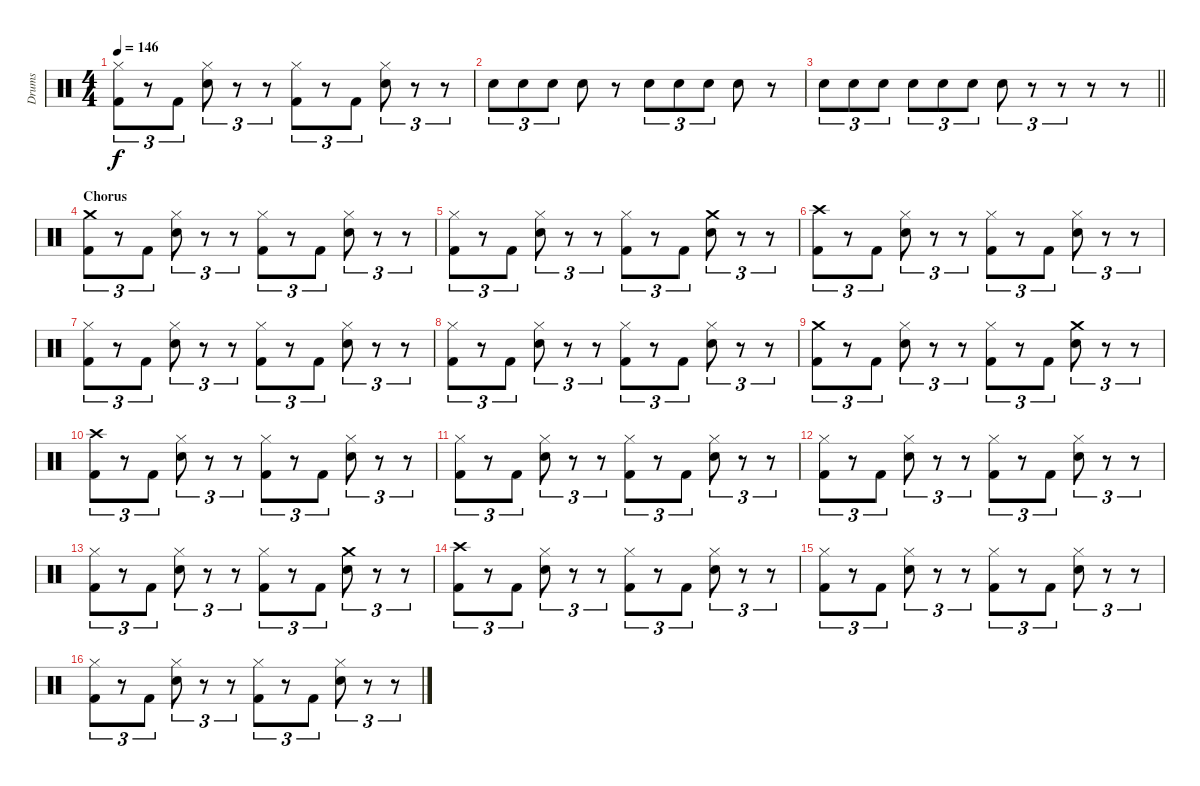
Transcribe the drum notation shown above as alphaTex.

\track ("Drums" "Drums") {instrument percussion}
\staff {score}
\articulation defaults
\ts (4 4)
\tempo 146
\clef neutral
\ks c
("Hi-Hat (closed)" "Kick (hit) 2").8{tu (3 2) dy f} r.8{tu (3 2)} "Kick (hit) 2".8{tu (3 2)} ("Hi-Hat (closed)" "Snare (hit) 2").8{tu (3 2)} r.8{tu (3 2)} r.8{tu (3 2)} ("Hi-Hat (closed)" "Kick (hit) 2").8{tu (3 2)} r.8{tu (3 2)} "Kick (hit) 2".8{tu (3 2)} ("Hi-Hat (closed)" "Snare (hit) 2").8{tu (3 2)} r.8{tu (3 2)} r.8{tu (3 2)} |
"Snare (hit) 2".8{tu (3 2)} "Snare (hit) 2".8{tu (3 2)} "Snare (hit) 2".8{tu (3 2)} "Snare (hit) 2".8 r.8 "Snare (hit) 2".8{tu (3 2)} "Snare (hit) 2".8{tu (3 2)} "Snare (hit) 2".8{tu (3 2)} "Snare (hit) 2".8 r.8 |
\barLineRight lightlight "Snare (hit) 2".8{tu (3 2)} "Snare (hit) 2".8{tu (3 2)} "Snare (hit) 2".8{tu (3 2)} "Snare (hit) 2".8{tu (3 2)} "Snare (hit) 2".8{tu (3 2)} "Snare (hit) 2".8{tu (3 2)} "Snare (hit) 2".8{tu (3 2)}
r.8{tu (3 2)} r.8{tu (3 2)} r.8 r.8 |
\section ("" "Chorus")
("Crash medium (hit)" "Kick (hit) 2").8{tu (3 2)} r.8{tu (3 2)} "Kick (hit) 2".8{tu (3 2)} ("Hi-Hat (closed)" "Snare (hit) 2").8{tu (3 2)} r.8{tu (3 2)} r.8{tu (3 2)} ("Hi-Hat (closed)" "Kick (hit) 2").8{tu (3 2)} r.8{tu (3 2)} "Kick (hit) 2".8{tu (3 2)} ("Hi-Hat (closed)" "Snare (hit) 2").8{tu (3 2)} r.8{tu (3 2)} r.8{tu (3 2)} |
("Hi-Hat (closed)" "Kick (hit) 2").8{tu (3 2)} r.8{tu (3 2)} "Kick (hit) 2".8{tu (3 2)} ("Hi-Hat (closed)" "Snare (hit) 2").8{tu (3 2)} r.8{tu (3 2)} r.8{tu (3 2)} ("Hi-Hat (closed)" "Kick (hit) 2").8{tu (3 2)} r.8{tu (3 2)} "Kick (hit) 2".8{tu (3 2)} ("Crash medium (hit)" "Snare (hit) 2").8{tu (3 2)} r.8{tu (3 2)} r.8{tu (3 2)} |
("Crash high (hit)" "Kick (hit) 2").8{tu (3 2)} r.8{tu (3 2)} "Kick (hit) 2".8{tu (3 2)} ("Hi-Hat (closed)" "Snare (hit) 2").8{tu (3 2)} r.8{tu (3 2)} r.8{tu (3 2)} ("Hi-Hat (closed)" "Kick (hit) 2").8{tu (3 2)} r.8{tu (3 2)} "Kick (hit) 2".8{tu (3 2)} ("Hi-Hat (closed)" "Snare (hit) 2").8{tu (3 2)} r.8{tu (3 2)} r.8{tu (3 2)} |
("Hi-Hat (closed)" "Kick (hit) 2").8{tu (3 2)} r.8{tu (3 2)} "Kick (hit) 2".8{tu (3 2)} ("Hi-Hat (closed)" "Snare (hit) 2").8{tu (3 2)} r.8{tu (3 2)} r.8{tu (3 2)} ("Hi-Hat (closed)" "Kick (hit) 2").8{tu (3 2)} r.8{tu (3 2)} "Kick (hit) 2".8{tu (3 2)} ("Hi-Hat (closed)" "Snare (hit) 2").8{tu (3 2)} r.8{tu (3 2)} r.8{tu (3 2)} |
("Hi-Hat (closed)" "Kick (hit) 2").8{tu (3 2)} r.8{tu (3 2)} "Kick (hit) 2".8{tu (3 2)} ("Hi-Hat (closed)" "Snare (hit) 2").8{tu (3 2)} r.8{tu (3 2)} r.8{tu (3 2)} ("Hi-Hat (closed)" "Kick (hit) 2").8{tu (3 2)} r.8{tu (3 2)} "Kick (hit) 2".8{tu (3 2)} ("Hi-Hat (closed)" "Snare (hit) 2").8{tu (3 2)} r.8{tu (3 2)} r.8{tu (3 2)} |
("Crash medium (hit)" "Kick (hit) 2").8{tu (3 2)} r.8{tu (3 2)} "Kick (hit) 2".8{tu (3 2)} ("Hi-Hat (closed)" "Snare (hit) 2").8{tu (3 2)} r.8{tu (3 2)} r.8{tu (3 2)} ("Hi-Hat (closed)" "Kick (hit) 2").8{tu (3 2)} r.8{tu (3 2)} "Kick (hit) 2".8{tu (3 2)} ("Crash medium (hit)" "Snare (hit) 2").8{tu (3 2)} r.8{tu (3 2)} r.8{tu (3 2)} |
("Crash high (hit)" "Kick (hit) 2").8{tu (3 2)} r.8{tu (3 2)} "Kick (hit) 2".8{tu (3 2)} ("Hi-Hat (closed)" "Snare (hit) 2").8{tu (3 2)} r.8{tu (3 2)} r.8{tu (3 2)} ("Hi-Hat (closed)" "Kick (hit) 2").8{tu (3 2)} r.8{tu (3 2)} "Kick (hit) 2".8{tu (3 2)} ("Hi-Hat (closed)" "Snare (hit) 2").8{tu (3 2)} r.8{tu (3 2)} r.8{tu (3 2)} |
("Hi-Hat (closed)" "Kick (hit) 2").8{tu (3 2)} r.8{tu (3 2)} "Kick (hit) 2".8{tu (3 2)} ("Hi-Hat (closed)" "Snare (hit) 2").8{tu (3 2)} r.8{tu (3 2)} r.8{tu (3 2)} ("Hi-Hat (closed)" "Kick (hit) 2").8{tu (3 2)} r.8{tu (3 2)} "Kick (hit) 2".8{tu (3 2)} ("Hi-Hat (closed)" "Snare (hit) 2").8{tu (3 2)} r.8{tu (3 2)} r.8{tu (3 2)} |
("Hi-Hat (closed)" "Kick (hit) 2").8{tu (3 2)} r.8{tu (3 2)} "Kick (hit) 2".8{tu (3 2)} ("Hi-Hat (closed)" "Snare (hit) 2").8{tu (3 2)} r.8{tu (3 2)} r.8{tu (3 2)} ("Hi-Hat (closed)" "Kick (hit) 2").8{tu (3 2)} r.8{tu (3 2)} "Kick (hit) 2".8{tu (3 2)} ("Hi-Hat (closed)" "Snare (hit) 2").8{tu (3 2)} r.8{tu (3 2)} r.8{tu (3 2)} |
("Hi-Hat (closed)" "Kick (hit) 2").8{tu (3 2)} r.8{tu (3 2)} "Kick (hit) 2".8{tu (3 2)} ("Hi-Hat (closed)" "Snare (hit) 2").8{tu (3 2)} r.8{tu (3 2)} r.8{tu (3 2)} ("Hi-Hat (closed)" "Kick (hit) 2").8{tu (3 2)} r.8{tu (3 2)} "Kick (hit) 2".8{tu (3 2)} ("Crash medium (hit)" "Snare (hit) 2").8{tu (3 2)} r.8{tu (3 2)} r.8{tu (3 2)} |
("Crash high (hit)" "Kick (hit) 2").8{tu (3 2)} r.8{tu (3 2)} "Kick (hit) 2".8{tu (3 2)} ("Hi-Hat (closed)" "Snare (hit) 2").8{tu (3 2)} r.8{tu (3 2)} r.8{tu (3 2)} ("Hi-Hat (closed)" "Kick (hit) 2").8{tu (3 2)} r.8{tu (3 2)} "Kick (hit) 2".8{tu (3 2)} ("Hi-Hat (closed)" "Snare (hit) 2").8{tu (3 2)} r.8{tu (3 2)} r.8{tu (3 2)} |
("Hi-Hat (closed)" "Kick (hit) 2").8{tu (3 2)} r.8{tu (3 2)} "Kick (hit) 2".8{tu (3 2)} ("Hi-Hat (closed)" "Snare (hit) 2").8{tu (3 2)} r.8{tu (3 2)} r.8{tu (3 2)} ("Hi-Hat (closed)" "Kick (hit) 2").8{tu (3 2)} r.8{tu (3 2)} "Kick (hit) 2".8{tu (3 2)} ("Hi-Hat (closed)" "Snare (hit) 2").8{tu (3 2)} r.8{tu (3 2)} r.8{tu (3 2)} |
("Hi-Hat (closed)" "Kick (hit) 2").8{tu (3 2)} r.8{tu (3 2)} "Kick (hit) 2".8{tu (3 2)} ("Hi-Hat (closed)" "Snare (hit) 2").8{tu (3 2)} r.8{tu (3 2)} r.8{tu (3 2)} ("Hi-Hat (closed)" "Kick (hit) 2").8{tu (3 2)} r.8{tu (3 2)} "Kick (hit) 2".8{tu (3 2)} ("Hi-Hat (closed)" "Snare (hit) 2").8{tu (3 2)} r.8{tu (3 2)} r.8{tu (3 2)}
